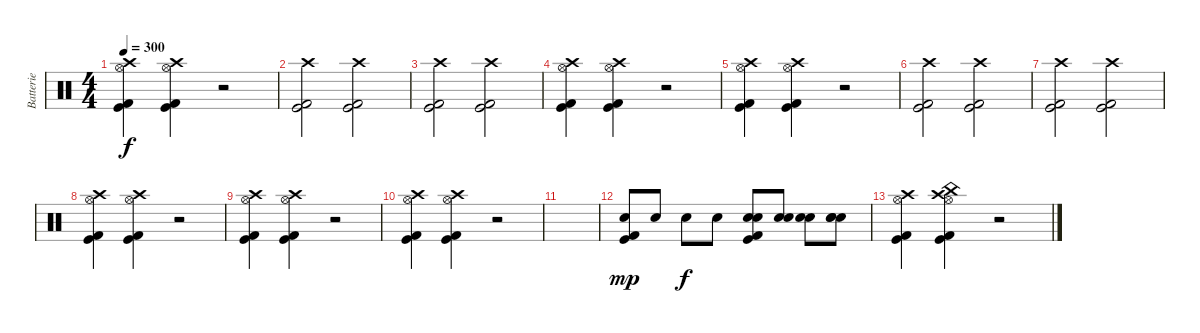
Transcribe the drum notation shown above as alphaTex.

\track ("Batterie" "Batterie") {instrument percussion}
\staff {score}
\articulation defaults
\ts (4 4)
\tempo 300
\clef neutral
\ks c
("Hi-Hat (open)" "Crash high (hit)" "Kick (hit)" "Kick (hit) 2").4{dy f} ("Hi-Hat (open)" "Crash high (hit)" "Kick (hit)" "Kick (hit) 2").4 r.2 |
("Crash high (hit)" "Kick (hit)" "Kick (hit) 2").2 ("Crash high (hit)" "Kick (hit)" "Kick (hit) 2").2 |
("Crash high (hit)" "Kick (hit)" "Kick (hit) 2").2 ("Crash high (hit)" "Kick (hit)" "Kick (hit) 2").2 |
("Hi-Hat (open)" "Crash high (hit)" "Kick (hit)" "Kick (hit) 2").4 ("Hi-Hat (open)" "Crash high (hit)" "Kick (hit)" "Kick (hit) 2").4 r.2 |
("Hi-Hat (open)" "Crash high (hit)" "Kick (hit)" "Kick (hit) 2").4 ("Hi-Hat (open)" "Crash high (hit)" "Kick (hit)" "Kick (hit) 2").4 r.2 |
("Crash high (hit)" "Kick (hit)" "Kick (hit) 2").2 ("Crash high (hit)" "Kick (hit)" "Kick (hit) 2").2 |
("Crash high (hit)" "Kick (hit)" "Kick (hit) 2").2 ("Crash high (hit)" "Kick (hit)" "Kick (hit) 2").2 |
("Hi-Hat (open)" "Crash high (hit)" "Kick (hit)" "Kick (hit) 2").4 ("Hi-Hat (open)" "Crash high (hit)" "Kick (hit)" "Kick (hit) 2").4 r.2 |
("Hi-Hat (open)" "Crash high (hit)" "Kick (hit)" "Kick (hit) 2").4 ("Hi-Hat (open)" "Crash high (hit)" "Kick (hit)" "Kick (hit) 2").4 r.2 |
("Hi-Hat (open)" "Crash high (hit)" "Kick (hit)" "Kick (hit) 2").4 ("Hi-Hat (open)" "Crash high (hit)" "Kick (hit)" "Kick (hit) 2").4 r.2 |
|
("Snare (hit) 2" "Kick (hit)" "Kick (hit) 2").8{dy mp} "Snare (hit) 2".8 "Snare (hit) 2".8{dy f} "Snare (hit) 2".8 ("Snare (hit) 2" "Snare (hit) 2" "Kick (hit)" "Kick (hit) 2").8 ("Snare (hit) 2" "Snare (hit) 2").8 ("Snare (hit) 2" "Snare (hit) 2").8 ("Snare (hit) 2" "Snare (hit) 2" "Snare (hit) 2").8 |
("Hi-Hat (open)" "Crash high (hit)" "Kick (hit)" "Kick (hit) 2").4 ("Hi-Hat (open)" "Crash high (hit)" "China (hit)" "Kick (hit)" "Kick (hit) 2").4 r.2
